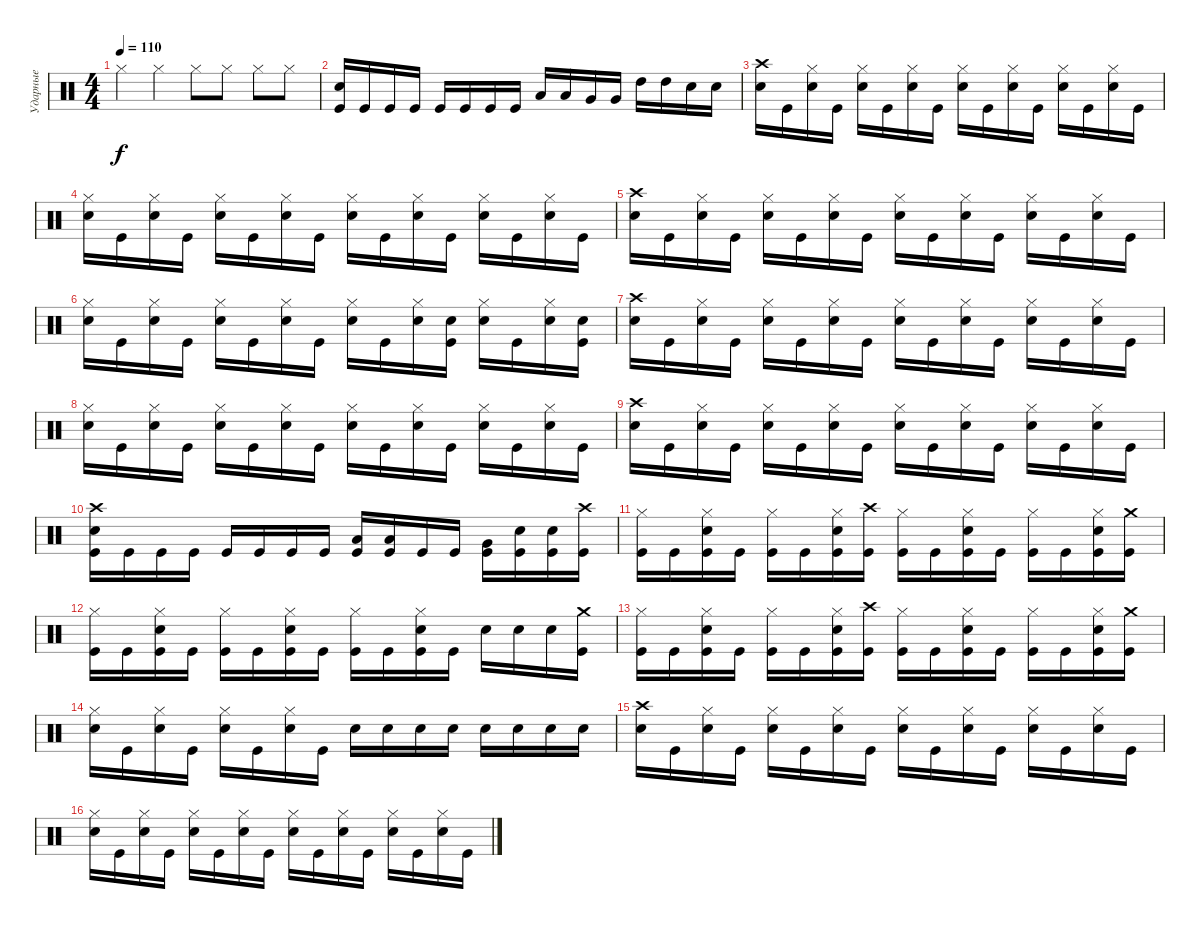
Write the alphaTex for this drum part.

\track ("Ударные" "Ударные") {instrument percussion}
\staff {score}
\articulation defaults
\ts (4 4)
\tempo 110
\clef neutral
\ks c "Hi-Hat (closed)".4{dy f} "Hi-Hat (closed)".4 "Hi-Hat (closed)".8 "Hi-Hat (closed)".8 "Hi-Hat (closed)".8 "Hi-Hat (closed)".8
|
("Electric Snare (hit)" "Kick (hit)").16 "Kick (hit)".16 "Kick (hit)".16 "Kick (hit)".16 "Kick (hit)".16 "Kick (hit)".16 "Kick (hit)".16 "Kick (hit)".16 "Low Tom (hit)".16 "Low Tom (hit)".16 "Very Low Tom (hit)".16 "Very Low Tom (hit)".16 "High Tom (hit)".16 "High Tom (hit)".16 "Electric Snare (hit)".16 "Electric Snare (hit)".16 |
("Crash high (hit)" "Electric Snare (hit)").16 "Kick (hit)".16 ("Hi-Hat (closed)" "Electric Snare (hit)").16 "Kick (hit)".16 ("Hi-Hat (closed)" "Electric Snare (hit)").16 "Kick (hit)".16 ("Hi-Hat (closed)" "Electric Snare (hit)").16 "Kick (hit)".16 ("Hi-Hat (closed)" "Electric Snare (hit)").16 "Kick (hit)".16 ("Hi-Hat (closed)" "Electric Snare (hit)").16 "Kick (hit)".16 ("Hi-Hat (closed)" "Electric Snare (hit)").16 "Kick (hit)".16 ("Hi-Hat (closed)" "Electric Snare (hit)").16 "Kick (hit)".16 |
("Hi-Hat (closed)" "Electric Snare (hit)").16 "Kick (hit)".16 ("Hi-Hat (closed)" "Electric Snare (hit)").16 "Kick (hit)".16 ("Hi-Hat (closed)" "Electric Snare (hit)").16 "Kick (hit)".16 ("Hi-Hat (closed)" "Electric Snare (hit)").16 "Kick (hit)".16 ("Hi-Hat (closed)" "Electric Snare (hit)").16 "Kick (hit)".16 ("Hi-Hat (closed)" "Electric Snare (hit)").16 "Kick (hit)".16 ("Hi-Hat (closed)" "Electric Snare (hit)").16 "Kick (hit)".16 ("Hi-Hat (closed)" "Electric Snare (hit)").16 "Kick (hit)".16 |
("Crash high (hit)" "Electric Snare (hit)").16 "Kick (hit)".16 ("Hi-Hat (closed)" "Electric Snare (hit)").16 "Kick (hit)".16 ("Hi-Hat (closed)" "Electric Snare (hit)").16 "Kick (hit)".16 ("Hi-Hat (closed)" "Electric Snare (hit)").16 "Kick (hit)".16 ("Hi-Hat (closed)" "Electric Snare (hit)").16 "Kick (hit)".16 ("Hi-Hat (closed)" "Electric Snare (hit)").16 "Kick (hit)".16 ("Hi-Hat (closed)" "Electric Snare (hit)").16 "Kick (hit)".16 ("Hi-Hat (closed)" "Electric Snare (hit)").16 "Kick (hit)".16 |
("Hi-Hat (closed)" "Electric Snare (hit)").16 "Kick (hit)".16 ("Hi-Hat (closed)" "Electric Snare (hit)").16 "Kick (hit)".16 ("Hi-Hat (closed)" "Electric Snare (hit)").16 "Kick (hit)".16 ("Hi-Hat (closed)" "Electric Snare (hit)").16 "Kick (hit)".16 ("Hi-Hat (closed)" "Electric Snare (hit)").16 "Kick (hit)".16 ("Hi-Hat (closed)" "Electric Snare (hit)").16 ("Electric Snare (hit)" "Kick (hit)").16 ("Hi-Hat (closed)" "Electric Snare (hit)").16 "Kick (hit)".16 ("Hi-Hat (closed)" "Electric Snare (hit)").16 ("Electric Snare (hit)" "Kick (hit)").16 |
("Crash high (hit)" "Electric Snare (hit)").16 "Kick (hit)".16 ("Hi-Hat (closed)" "Electric Snare (hit)").16 "Kick (hit)".16 ("Hi-Hat (closed)" "Electric Snare (hit)").16 "Kick (hit)".16 ("Hi-Hat (closed)" "Electric Snare (hit)").16 "Kick (hit)".16 ("Hi-Hat (closed)" "Electric Snare (hit)").16 "Kick (hit)".16 ("Hi-Hat (closed)" "Electric Snare (hit)").16 "Kick (hit)".16 ("Hi-Hat (closed)" "Electric Snare (hit)").16 "Kick (hit)".16 ("Hi-Hat (closed)" "Electric Snare (hit)").16 "Kick (hit)".16 |
("Hi-Hat (closed)" "Electric Snare (hit)").16 "Kick (hit)".16 ("Hi-Hat (closed)" "Electric Snare (hit)").16 "Kick (hit)".16 ("Hi-Hat (closed)" "Electric Snare (hit)").16 "Kick (hit)".16 ("Hi-Hat (closed)" "Electric Snare (hit)").16 "Kick (hit)".16 ("Hi-Hat (closed)" "Electric Snare (hit)").16 "Kick (hit)".16 ("Hi-Hat (closed)" "Electric Snare (hit)").16 "Kick (hit)".16 ("Hi-Hat (closed)" "Electric Snare (hit)").16 "Kick (hit)".16 ("Hi-Hat (closed)" "Electric Snare (hit)").16 "Kick (hit)".16 |
("Crash high (hit)" "Electric Snare (hit)").16 "Kick (hit)".16 ("Hi-Hat (closed)" "Electric Snare (hit)").16 "Kick (hit)".16 ("Hi-Hat (closed)" "Electric Snare (hit)").16 "Kick (hit)".16 ("Hi-Hat (closed)" "Electric Snare (hit)").16 "Kick (hit)".16 ("Hi-Hat (closed)" "Electric Snare (hit)").16 "Kick (hit)".16 ("Hi-Hat (closed)" "Electric Snare (hit)").16 "Kick (hit)".16 ("Hi-Hat (closed)" "Electric Snare (hit)").16 "Kick (hit)".16 ("Hi-Hat (closed)" "Electric Snare (hit)").16 "Kick (hit)".16 |
("Crash high (hit)" "Electric Snare (hit)" "Kick (hit)").16 "Kick (hit)".16 "Kick (hit)".16 "Kick (hit)".16 "Kick (hit)".16 "Kick (hit)".16 "Kick (hit)".16 "Kick (hit)".16 ("Low Tom (hit)" "Kick (hit)").16 ("Low Tom (hit)" "Kick (hit)").16 "Kick (hit)".16 "Kick (hit)".16 ("Very Low Tom (hit)" "Kick (hit)").16 ("Electric Snare (hit)" "Kick (hit)").16 ("Electric Snare (hit)" "Kick (hit)").16 ("Crash high (hit)" "Kick (hit)").16 |
("Hi-Hat (closed)" "Kick (hit)").16 "Kick (hit)".16 ("Hi-Hat (closed)" "Electric Snare (hit)" "Kick (hit)").16 "Kick (hit)".16 ("Hi-Hat (closed)" "Kick (hit)").16 "Kick (hit)".16 ("Hi-Hat (closed)" "Electric Snare (hit)" "Kick (hit)").16 ("Crash high (hit)" "Kick (hit)").16 ("Hi-Hat (closed)" "Kick (hit)").16 "Kick (hit)".16 ("Hi-Hat (closed)" "Electric Snare (hit)" "Kick (hit)").16 "Kick (hit)".16 ("Hi-Hat (closed)" "Kick (hit)").16 "Kick (hit)".16 ("Hi-Hat (closed)" "Electric Snare (hit)" "Kick (hit)").16 ("Crash medium (hit)" "Kick (hit)").16 |
("Hi-Hat (closed)" "Kick (hit)").16 "Kick (hit)".16 ("Hi-Hat (closed)" "Electric Snare (hit)" "Kick (hit)").16 "Kick (hit)".16 ("Hi-Hat (closed)" "Kick (hit)").16 "Kick (hit)".16 ("Hi-Hat (closed)" "Electric Snare (hit)" "Kick (hit)").16 "Kick (hit)".16 ("Hi-Hat (closed)" "Kick (hit)").16 "Kick (hit)".16 ("Hi-Hat (closed)" "Electric Snare (hit)" "Kick (hit)").16 "Kick (hit)".16 "Electric Snare (hit)".16 "Electric Snare (hit)".16 "Electric Snare (hit)".16 ("Crash medium (hit)" "Kick (hit)").16 |
("Hi-Hat (closed)" "Kick (hit)").16 "Kick (hit)".16 ("Hi-Hat (closed)" "Electric Snare (hit)" "Kick (hit)").16 "Kick (hit)".16 ("Hi-Hat (closed)" "Kick (hit)").16 "Kick (hit)".16 ("Hi-Hat (closed)" "Electric Snare (hit)" "Kick (hit)").16 ("Crash high (hit)" "Kick (hit)").16 ("Hi-Hat (closed)" "Kick (hit)").16 "Kick (hit)".16 ("Hi-Hat (closed)" "Electric Snare (hit)" "Kick (hit)").16 "Kick (hit)".16 ("Hi-Hat (closed)" "Kick (hit)").16 "Kick (hit)".16 ("Hi-Hat (closed)" "Electric Snare (hit)" "Kick (hit)").16 ("Crash medium (hit)" "Kick (hit)").16 |
("Hi-Hat (closed)" "Electric Snare (hit)").16 "Kick (hit)".16 ("Hi-Hat (closed)" "Electric Snare (hit)").16 "Kick (hit)".16 ("Hi-Hat (closed)" "Electric Snare (hit)").16 "Kick (hit)".16 ("Hi-Hat (closed)" "Electric Snare (hit)").16 "Kick (hit)".16 "Electric Snare (hit)".16 "Electric Snare (hit)".16 "Electric Snare (hit)".16 "Electric Snare (hit)".16 "Electric Snare (hit)".16 "Electric Snare (hit)".16 "Electric Snare (hit)".16 "Electric Snare (hit)".16 |
("Crash high (hit)" "Electric Snare (hit)").16 "Kick (hit)".16 ("Hi-Hat (closed)" "Electric Snare (hit)").16 "Kick (hit)".16 ("Hi-Hat (closed)" "Electric Snare (hit)").16 "Kick (hit)".16 ("Hi-Hat (closed)" "Electric Snare (hit)").16 "Kick (hit)".16 ("Hi-Hat (closed)" "Electric Snare (hit)").16 "Kick (hit)".16 ("Hi-Hat (closed)" "Electric Snare (hit)").16 "Kick (hit)".16 ("Hi-Hat (closed)" "Electric Snare (hit)").16 "Kick (hit)".16 ("Hi-Hat (closed)" "Electric Snare (hit)").16 "Kick (hit)".16 |
("Hi-Hat (closed)" "Electric Snare (hit)").16 "Kick (hit)".16 ("Hi-Hat (closed)" "Electric Snare (hit)").16 "Kick (hit)".16 ("Hi-Hat (closed)" "Electric Snare (hit)").16 "Kick (hit)".16 ("Hi-Hat (closed)" "Electric Snare (hit)").16 "Kick (hit)".16 ("Hi-Hat (closed)" "Electric Snare (hit)").16 "Kick (hit)".16 ("Hi-Hat (closed)" "Electric Snare (hit)").16 "Kick (hit)".16 ("Hi-Hat (closed)" "Electric Snare (hit)").16 "Kick (hit)".16 ("Hi-Hat (closed)" "Electric Snare (hit)").16 "Kick (hit)".16
